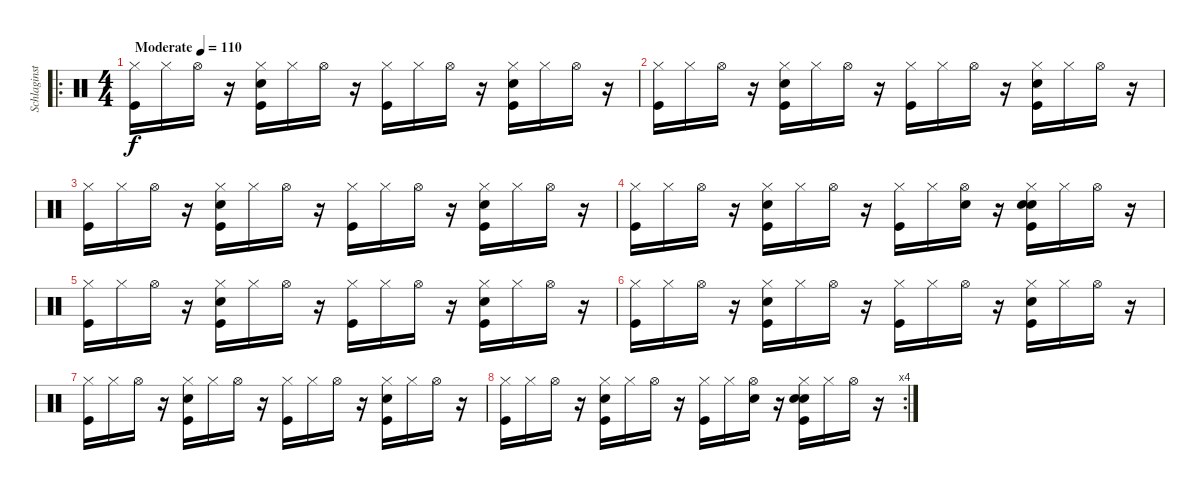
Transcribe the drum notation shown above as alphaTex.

\track ("Schlaginstrumente - Auswahl" "Schlaginst") {instrument percussion}
\staff {score}
\articulation defaults
\ro
\ts (4 4)
\tempo (110 "Moderate")
\clef neutral
\ks c
("Hi-Hat (closed)" "Kick (hit)").16{dy f} "Hi-Hat (closed)".16 "Hi-Hat (open)".16 r.16 ("Hi-Hat (closed)" "Snare (hit) 2" "Kick (hit)").16 "Hi-Hat (closed)".16 "Hi-Hat (open)".16 r.16 ("Hi-Hat (closed)" "Kick (hit)").16 "Hi-Hat (closed)".16 "Hi-Hat (open)".16 r.16 ("Hi-Hat (closed)" "Snare (hit) 2" "Kick (hit)").16 "Hi-Hat (closed)".16 "Hi-Hat (open)".16 r.16 |
("Hi-Hat (closed)" "Kick (hit)").16 "Hi-Hat (closed)".16 "Hi-Hat (open)".16 r.16 ("Hi-Hat (closed)" "Snare (hit) 2" "Kick (hit)").16 "Hi-Hat (closed)".16 "Hi-Hat (open)".16 r.16 ("Hi-Hat (closed)" "Kick (hit)").16 "Hi-Hat (closed)".16 "Hi-Hat (open)".16 r.16 ("Hi-Hat (closed)" "Snare (hit) 2" "Kick (hit)").16 "Hi-Hat (closed)".16 "Hi-Hat (open)".16 r.16 |
("Hi-Hat (closed)" "Kick (hit)").16 "Hi-Hat (closed)".16 "Hi-Hat (open)".16 r.16 ("Hi-Hat (closed)" "Snare (hit) 2" "Kick (hit)").16 "Hi-Hat (closed)".16 "Hi-Hat (open)".16 r.16 ("Hi-Hat (closed)" "Kick (hit)").16 "Hi-Hat (closed)".16 "Hi-Hat (open)".16 r.16 ("Hi-Hat (closed)" "Snare (hit) 2" "Kick (hit)").16 "Hi-Hat (closed)".16 "Hi-Hat (open)".16 r.16 |
("Hi-Hat (closed)" "Kick (hit)").16 "Hi-Hat (closed)".16 "Hi-Hat (open)".16 r.16 ("Hi-Hat (closed)" "Snare (hit) 2" "Kick (hit)").16 "Hi-Hat (closed)".16 "Hi-Hat (open)".16 r.16 ("Hi-Hat (closed)" "Kick (hit)").16 "Hi-Hat (closed)".16 ("Hi-Hat (open)" "Hand Clap (hit)").16 r.16 ("Hi-Hat (closed)" "Hand Clap (hit)" "Snare (hit) 2" "Kick (hit)").16 "Hi-Hat (closed)".16 "Hi-Hat (open)".16 r.16 |
("Hi-Hat (closed)" "Kick (hit)").16 "Hi-Hat (closed)".16 "Hi-Hat (open)".16 r.16 ("Hi-Hat (closed)" "Snare (hit) 2" "Kick (hit)").16 "Hi-Hat (closed)".16 "Hi-Hat (open)".16 r.16 ("Hi-Hat (closed)" "Kick (hit)").16 "Hi-Hat (closed)".16 "Hi-Hat (open)".16 r.16 ("Hi-Hat (closed)" "Snare (hit) 2" "Kick (hit)").16 "Hi-Hat (closed)".16 "Hi-Hat (open)".16 r.16 |
("Hi-Hat (closed)" "Kick (hit)").16 "Hi-Hat (closed)".16 "Hi-Hat (open)".16 r.16 ("Hi-Hat (closed)" "Snare (hit) 2" "Kick (hit)").16 "Hi-Hat (closed)".16 "Hi-Hat (open)".16 r.16 ("Hi-Hat (closed)" "Kick (hit)").16 "Hi-Hat (closed)".16 "Hi-Hat (open)".16 r.16 ("Hi-Hat (closed)" "Snare (hit) 2" "Kick (hit)").16 "Hi-Hat (closed)".16 "Hi-Hat (open)".16 r.16 |
("Hi-Hat (closed)" "Kick (hit)").16 "Hi-Hat (closed)".16 "Hi-Hat (open)".16 r.16 ("Hi-Hat (closed)" "Snare (hit) 2" "Kick (hit)").16 "Hi-Hat (closed)".16 "Hi-Hat (open)".16 r.16 ("Hi-Hat (closed)" "Kick (hit)").16 "Hi-Hat (closed)".16 "Hi-Hat (open)".16 r.16 ("Hi-Hat (closed)" "Snare (hit) 2" "Kick (hit)").16 "Hi-Hat (closed)".16 "Hi-Hat (open)".16 r.16 |
\rc 4
("Hi-Hat (closed)" "Kick (hit)").16 "Hi-Hat (closed)".16 "Hi-Hat (open)".16 r.16 ("Hi-Hat (closed)" "Snare (hit) 2" "Kick (hit)").16 "Hi-Hat (closed)".16 "Hi-Hat (open)".16 r.16 ("Hi-Hat (closed)" "Kick (hit)").16 "Hi-Hat (closed)".16 ("Hi-Hat (open)" "Hand Clap (hit)").16 r.16 ("Hi-Hat (closed)" "Hand Clap (hit)" "Snare (hit) 2" "Kick (hit)").16 "Hi-Hat (closed)".16 "Hi-Hat (open)".16 r.16
